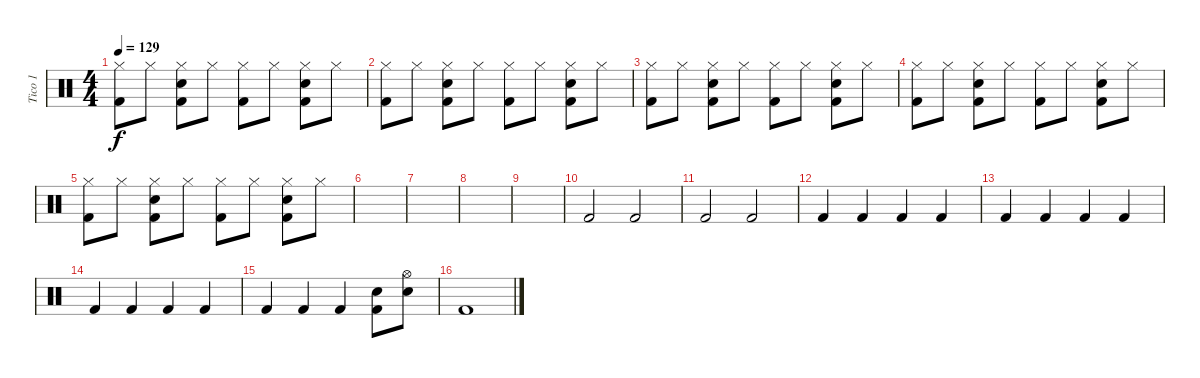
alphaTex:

\track ("Tico 1" "Tico 1") {instrument percussion}
\staff {score}
\articulation defaults
\ts (4 4)
\tempo 129
\clef neutral
\ks c
("Hi-Hat (closed)" "Kick (hit) 2").8{dy f} "Hi-Hat (closed)".8 ("Hi-Hat (closed)" "Snare (hit) 2" "Kick (hit) 2").8 "Hi-Hat (closed)".8 ("Hi-Hat (closed)" "Kick (hit) 2").8 "Hi-Hat (closed)".8 ("Hi-Hat (closed)" "Snare (hit) 2" "Kick (hit) 2").8 "Hi-Hat (closed)".8 |
("Hi-Hat (closed)" "Kick (hit) 2").8 "Hi-Hat (closed)".8 ("Hi-Hat (closed)" "Snare (hit) 2" "Kick (hit) 2").8 "Hi-Hat (closed)".8 ("Hi-Hat (closed)" "Kick (hit) 2").8 "Hi-Hat (closed)".8 ("Hi-Hat (closed)" "Snare (hit) 2" "Kick (hit) 2").8 "Hi-Hat (closed)".8 |
("Hi-Hat (closed)" "Kick (hit) 2").8 "Hi-Hat (closed)".8 ("Hi-Hat (closed)" "Snare (hit) 2" "Kick (hit) 2").8 "Hi-Hat (closed)".8 ("Hi-Hat (closed)" "Kick (hit) 2").8 "Hi-Hat (closed)".8 ("Hi-Hat (closed)" "Snare (hit) 2" "Kick (hit) 2").8 "Hi-Hat (closed)".8 |
("Hi-Hat (closed)" "Kick (hit) 2").8 "Hi-Hat (closed)".8 ("Hi-Hat (closed)" "Snare (hit) 2" "Kick (hit) 2").8 "Hi-Hat (closed)".8 ("Hi-Hat (closed)" "Kick (hit) 2").8 "Hi-Hat (closed)".8 ("Hi-Hat (closed)" "Snare (hit) 2" "Kick (hit) 2").8 "Hi-Hat (closed)".8 |
("Hi-Hat (closed)" "Kick (hit) 2").8 "Hi-Hat (closed)".8 ("Hi-Hat (closed)" "Snare (hit) 2" "Kick (hit) 2").8 "Hi-Hat (closed)".8 ("Hi-Hat (closed)" "Kick (hit) 2").8 "Hi-Hat (closed)".8 ("Hi-Hat (closed)" "Snare (hit) 2" "Kick (hit) 2").8 "Hi-Hat (closed)".8 |
|
|
|
|
"Kick (hit) 2".2 "Kick (hit) 2".2 |
"Kick (hit) 2".2 "Kick (hit) 2".2 |
"Kick (hit) 2".4 "Kick (hit) 2".4 "Kick (hit) 2".4 "Kick (hit) 2".4 |
"Kick (hit) 2".4 "Kick (hit) 2".4 "Kick (hit) 2".4 "Kick (hit) 2".4 |
"Kick (hit) 2".4 "Kick (hit) 2".4 "Kick (hit) 2".4 "Kick (hit) 2".4 |
"Kick (hit) 2".4 "Kick (hit) 2".4 "Kick (hit) 2".4 ("Snare (hit) 2" "Kick (hit) 2").8 ("Hi-Hat (open)" "Snare (hit) 2").8 |
"Kick (hit) 2".1
